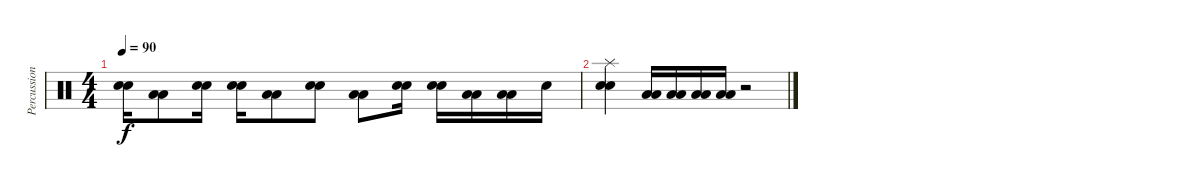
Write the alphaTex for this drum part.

\track ("Percussions" "Percussion") {instrument percussion}
\staff {score}
\articulation defaults
\ts (4 4)
\tempo 90
\clef neutral
\ks c
("Snare (hit) 2" "Electric Snare (hit)").16{dy f} ("Low Floor Tom (hit)" "Low Floor Tom (hit)").8 ("Snare (hit) 2" "Electric Snare (hit)").16 ("Snare (hit) 2" "Electric Snare (hit)").16 ("Low Floor Tom (hit)" "Low Floor Tom (hit)").8 ("Snare (hit) 2" "Electric Snare (hit)").8 ("Low Floor Tom (hit)" "Low Floor Tom (hit)").8 ("Snare (hit) 2" "Electric Snare (hit)").16 ("Snare (hit) 2" "Electric Snare (hit)").16 ("Low Floor Tom (hit)" "Low Floor Tom (hit)").16 ("Low Floor Tom (hit)" "Low Floor Tom (hit)").16 "Snare (hit) 2".16 |
("Snare (hit) 2" "Electric Snare (hit)" "Splash (hit)").4 ("Low Floor Tom (hit)" "Low Floor Tom (hit)").16 ("Low Floor Tom (hit)" "Low Floor Tom (hit)").16 ("Low Floor Tom (hit)" "Low Floor Tom (hit)").16 ("Low Floor Tom (hit)" "Low Floor Tom (hit)").16 r.2
